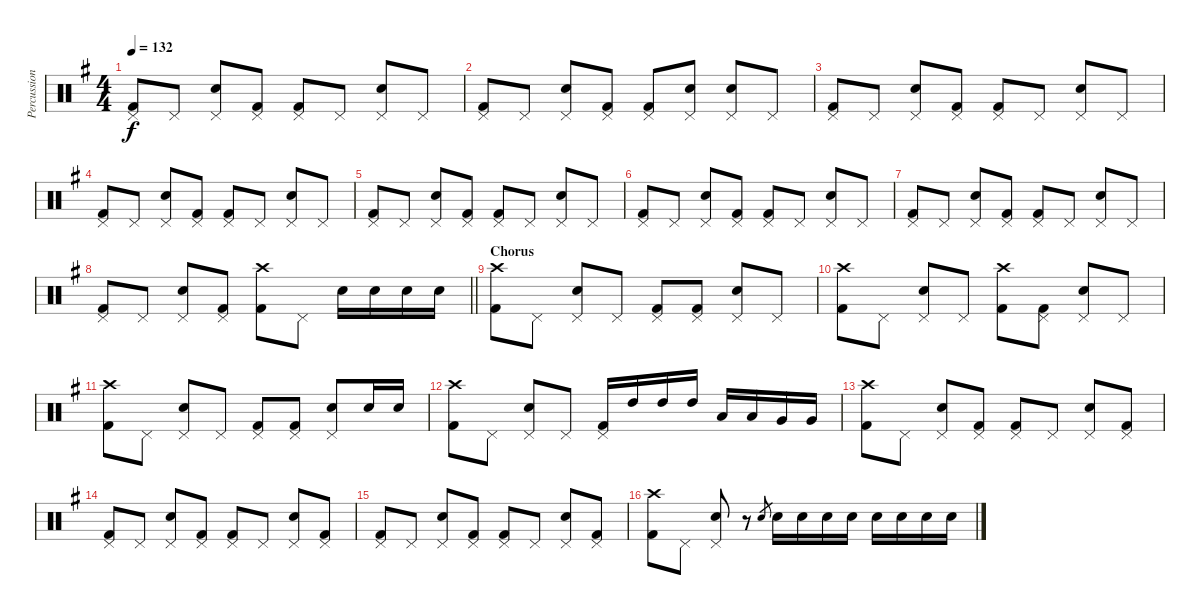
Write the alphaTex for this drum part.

\track ("Percussion" "Percussion") {instrument percussion}
\staff {score}
\articulation defaults
\ts (4 4)
\tempo 132
\clef neutral
\ks g
("Pedal Hi-Hat (hit)" "Kick (hit) 2").8{dy f} "Pedal Hi-Hat (hit)".8 ("Pedal Hi-Hat (hit)" "Snare (hit) 2").8 ("Pedal Hi-Hat (hit)" "Kick (hit) 2").8 ("Pedal Hi-Hat (hit)" "Kick (hit) 2").8 "Pedal Hi-Hat (hit)".8 ("Pedal Hi-Hat (hit)" "Snare (hit) 2").8 "Pedal Hi-Hat (hit)".8 |
("Pedal Hi-Hat (hit)" "Kick (hit) 2").8 "Pedal Hi-Hat (hit)".8 ("Pedal Hi-Hat (hit)" "Snare (hit) 2").8 ("Pedal Hi-Hat (hit)" "Kick (hit) 2").8 ("Pedal Hi-Hat (hit)" "Kick (hit) 2").8 ("Pedal Hi-Hat (hit)" "Snare (hit) 2").8 ("Pedal Hi-Hat (hit)" "Snare (hit) 2").8 "Pedal Hi-Hat (hit)".8 |
("Pedal Hi-Hat (hit)" "Kick (hit) 2").8 "Pedal Hi-Hat (hit)".8 ("Pedal Hi-Hat (hit)" "Snare (hit) 2").8 ("Pedal Hi-Hat (hit)" "Kick (hit) 2").8 ("Pedal Hi-Hat (hit)" "Kick (hit) 2").8 "Pedal Hi-Hat (hit)".8 ("Pedal Hi-Hat (hit)" "Snare (hit) 2").8 "Pedal Hi-Hat (hit)".8 |
("Pedal Hi-Hat (hit)" "Kick (hit) 2").8 "Pedal Hi-Hat (hit)".8 ("Pedal Hi-Hat (hit)" "Snare (hit) 2").8 ("Pedal Hi-Hat (hit)" "Kick (hit) 2").8 ("Pedal Hi-Hat (hit)" "Kick (hit) 2").8 "Pedal Hi-Hat (hit)".8 ("Pedal Hi-Hat (hit)" "Snare (hit) 2").8 "Pedal Hi-Hat (hit)".8 |
("Pedal Hi-Hat (hit)" "Kick (hit) 2").8 "Pedal Hi-Hat (hit)".8 ("Pedal Hi-Hat (hit)" "Snare (hit) 2").8 ("Pedal Hi-Hat (hit)" "Kick (hit) 2").8 ("Pedal Hi-Hat (hit)" "Kick (hit) 2").8 "Pedal Hi-Hat (hit)".8 ("Pedal Hi-Hat (hit)" "Snare (hit) 2").8 "Pedal Hi-Hat (hit)".8 |
("Pedal Hi-Hat (hit)" "Kick (hit) 2").8 "Pedal Hi-Hat (hit)".8 ("Pedal Hi-Hat (hit)" "Snare (hit) 2").8 ("Pedal Hi-Hat (hit)" "Kick (hit) 2").8 ("Pedal Hi-Hat (hit)" "Kick (hit) 2").8 "Pedal Hi-Hat (hit)".8 ("Pedal Hi-Hat (hit)" "Snare (hit) 2").8 "Pedal Hi-Hat (hit)".8 |
("Pedal Hi-Hat (hit)" "Kick (hit) 2").8 "Pedal Hi-Hat (hit)".8 ("Pedal Hi-Hat (hit)" "Snare (hit) 2").8 ("Pedal Hi-Hat (hit)" "Kick (hit) 2").8 ("Pedal Hi-Hat (hit)" "Kick (hit) 2").8 "Pedal Hi-Hat (hit)".8 ("Pedal Hi-Hat (hit)" "Snare (hit) 2").8 "Pedal Hi-Hat (hit)".8 |
\barLineRight lightlight
("Pedal Hi-Hat (hit)" "Kick (hit) 2").8 "Pedal Hi-Hat (hit)".8 ("Pedal Hi-Hat (hit)" "Snare (hit) 2").8 ("Pedal Hi-Hat (hit)" "Kick (hit) 2").8 ("Crash high (hit)" "Kick (hit) 2").8 "Pedal Hi-Hat (hit)".8 "Electric Snare (hit)".16 "Electric Snare (hit)".16 "Electric Snare (hit)".16 "Electric Snare (hit)".16 |
\section ("" "Chorus")
("Crash high (hit)" "Kick (hit) 2").8 "Pedal Hi-Hat (hit)".8 ("Pedal Hi-Hat (hit)" "Snare (hit) 2").8 "Pedal Hi-Hat (hit)".8 ("Pedal Hi-Hat (hit)" "Kick (hit) 2").8 ("Pedal Hi-Hat (hit)" "Kick (hit) 2").8 ("Pedal Hi-Hat (hit)" "Snare (hit) 2").8 "Pedal Hi-Hat (hit)".8 |
("Crash high (hit)" "Kick (hit) 2").8 "Pedal Hi-Hat (hit)".8 ("Pedal Hi-Hat (hit)" "Snare (hit) 2").8 "Pedal Hi-Hat (hit)".8 ("Crash high (hit)" "Kick (hit) 2").8 ("Pedal Hi-Hat (hit)" "Kick (hit) 2").8 ("Pedal Hi-Hat (hit)" "Snare (hit) 2").8 "Pedal Hi-Hat (hit)".8 |
("Crash high (hit)" "Kick (hit) 2").8 "Pedal Hi-Hat (hit)".8 ("Pedal Hi-Hat (hit)" "Snare (hit) 2").8 "Pedal Hi-Hat (hit)".8 ("Pedal Hi-Hat (hit)" "Kick (hit) 2").8 ("Pedal Hi-Hat (hit)" "Kick (hit) 2").8 ("Pedal Hi-Hat (hit)" "Snare (hit) 2").8 "Snare (hit) 2".16 "Snare (hit) 2".16 |
("Crash high (hit)" "Kick (hit) 2").8 "Pedal Hi-Hat (hit)".8 ("Pedal Hi-Hat (hit)" "Snare (hit) 2").8 "Pedal Hi-Hat (hit)".8 ("Pedal Hi-Hat (hit)" "Kick (hit) 2").16 "High Tom (hit)".16 "High Tom (hit)".16 "High Tom (hit)".16 "Low Tom (hit)".16 "Low Tom (hit)".16 "Very Low Tom (hit)".16 "Very Low Tom (hit)".16 |
("Crash high (hit)" "Kick (hit) 2").8 "Pedal Hi-Hat (hit)".8 ("Pedal Hi-Hat (hit)" "Snare (hit) 2").8 ("Pedal Hi-Hat (hit)" "Kick (hit) 2").8 ("Pedal Hi-Hat (hit)" "Kick (hit) 2").8 "Pedal Hi-Hat (hit)".8 ("Pedal Hi-Hat (hit)" "Snare (hit) 2").8 ("Pedal Hi-Hat (hit)" "Kick (hit) 2").8 |
("Pedal Hi-Hat (hit)" "Kick (hit) 2").8 "Pedal Hi-Hat (hit)".8 ("Pedal Hi-Hat (hit)" "Snare (hit) 2").8 ("Pedal Hi-Hat (hit)" "Kick (hit) 2").8 ("Pedal Hi-Hat (hit)" "Kick (hit) 2").8 "Pedal Hi-Hat (hit)".8 ("Pedal Hi-Hat (hit)" "Snare (hit) 2").8 ("Pedal Hi-Hat (hit)" "Kick (hit) 2").8 |
("Pedal Hi-Hat (hit)" "Kick (hit) 2").8 "Pedal Hi-Hat (hit)".8 ("Pedal Hi-Hat (hit)" "Snare (hit) 2").8 ("Pedal Hi-Hat (hit)" "Kick (hit) 2").8 ("Pedal Hi-Hat (hit)" "Kick (hit) 2").8 "Pedal Hi-Hat (hit)".8 ("Pedal Hi-Hat (hit)" "Snare (hit) 2").8 ("Pedal Hi-Hat (hit)" "Kick (hit) 2").8 |
("Crash high (hit)" "Kick (hit) 2").8 "Pedal Hi-Hat (hit)".8 ("Pedal Hi-Hat (hit)" "Snare (hit) 2").8 r.8 "Electric Snare (hit)".8{gr} "Electric Snare (hit)".16 "Electric Snare (hit)".16 "Electric Snare (hit)".16 "Electric Snare (hit)".16 "Electric Snare (hit)".16 "Electric Snare (hit)".16 "Electric Snare (hit)".16 "Electric Snare (hit)".16
